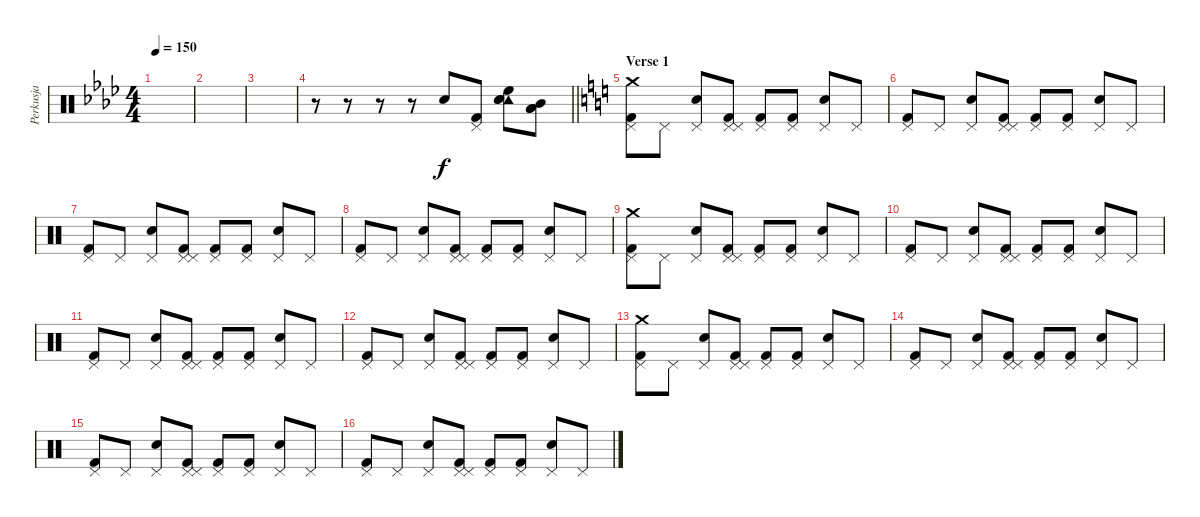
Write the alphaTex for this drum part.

\track ("Perkusja" "Perkusja") {instrument percussion}
\staff {score}
\articulation defaults
\ts (4 4)
\tempo 150
\clef neutral
\ks ab
|
|
|
\barLineRight lightlight
r.8 r.8 r.8 r.8 "Electric Snare (hit)".8 ("Pedal Hi-Hat (hit)" "Kick (hit) 2").8 ("Tambourine (hit)" "Electric Snare (hit)" "High Floor Tom (hit)" "Electric Snare (hit)").8 ("Mid Tom (hit)" "Low Floor Tom (hit)" "Low Floor Tom (hit)").8 |
\section ("" "Verse 1")
\ks c
("Pedal Hi-Hat (hit)" "Kick (hit) 2" "Crash medium (hit)").8 "Pedal Hi-Hat (hit)".8 ("Pedal Hi-Hat (hit)" "Electric Snare (hit)").8 ("Pedal Hi-Hat (hit)" "Kick (hit) 2" "Pedal Hi-Hat (hit)").8 ("Pedal Hi-Hat (hit)" "Kick (hit) 2").8 ("Pedal Hi-Hat (hit)" "Kick (hit) 2").8 ("Pedal Hi-Hat (hit)" "Electric Snare (hit)").8 "Pedal Hi-Hat (hit)".8 |
("Pedal Hi-Hat (hit)" "Kick (hit) 2").8 "Pedal Hi-Hat (hit)".8 ("Pedal Hi-Hat (hit)" "Electric Snare (hit)").8 ("Pedal Hi-Hat (hit)" "Kick (hit) 2" "Pedal Hi-Hat (hit)").8 ("Pedal Hi-Hat (hit)" "Kick (hit) 2").8 ("Pedal Hi-Hat (hit)" "Kick (hit) 2").8 ("Pedal Hi-Hat (hit)" "Electric Snare (hit)").8 "Pedal Hi-Hat (hit)".8 |
("Pedal Hi-Hat (hit)" "Kick (hit) 2").8 "Pedal Hi-Hat (hit)".8 ("Pedal Hi-Hat (hit)" "Electric Snare (hit)").8 ("Pedal Hi-Hat (hit)" "Kick (hit) 2" "Pedal Hi-Hat (hit)").8 ("Pedal Hi-Hat (hit)" "Kick (hit) 2").8 ("Pedal Hi-Hat (hit)" "Kick (hit) 2").8 ("Pedal Hi-Hat (hit)" "Electric Snare (hit)").8 "Pedal Hi-Hat (hit)".8 |
("Pedal Hi-Hat (hit)" "Kick (hit) 2").8 "Pedal Hi-Hat (hit)".8 ("Pedal Hi-Hat (hit)" "Electric Snare (hit)").8 ("Pedal Hi-Hat (hit)" "Kick (hit) 2" "Pedal Hi-Hat (hit)").8 ("Pedal Hi-Hat (hit)" "Kick (hit) 2").8 ("Pedal Hi-Hat (hit)" "Kick (hit) 2").8 ("Pedal Hi-Hat (hit)" "Electric Snare (hit)").8 "Pedal Hi-Hat (hit)".8 |
("Pedal Hi-Hat (hit)" "Kick (hit) 2" "Crash medium (hit)").8 "Pedal Hi-Hat (hit)".8 ("Pedal Hi-Hat (hit)" "Electric Snare (hit)").8 ("Pedal Hi-Hat (hit)" "Kick (hit) 2" "Pedal Hi-Hat (hit)").8 ("Pedal Hi-Hat (hit)" "Kick (hit) 2").8 ("Pedal Hi-Hat (hit)" "Kick (hit) 2").8 ("Pedal Hi-Hat (hit)" "Electric Snare (hit)").8 "Pedal Hi-Hat (hit)".8 |
("Pedal Hi-Hat (hit)" "Kick (hit) 2").8 "Pedal Hi-Hat (hit)".8 ("Pedal Hi-Hat (hit)" "Electric Snare (hit)").8 ("Pedal Hi-Hat (hit)" "Kick (hit) 2" "Pedal Hi-Hat (hit)").8 ("Pedal Hi-Hat (hit)" "Kick (hit) 2").8 ("Pedal Hi-Hat (hit)" "Kick (hit) 2").8 ("Pedal Hi-Hat (hit)" "Electric Snare (hit)").8 "Pedal Hi-Hat (hit)".8 |
("Pedal Hi-Hat (hit)" "Kick (hit) 2").8 "Pedal Hi-Hat (hit)".8 ("Pedal Hi-Hat (hit)" "Electric Snare (hit)").8 ("Pedal Hi-Hat (hit)" "Kick (hit) 2" "Pedal Hi-Hat (hit)").8 ("Pedal Hi-Hat (hit)" "Kick (hit) 2").8 ("Pedal Hi-Hat (hit)" "Kick (hit) 2").8 ("Pedal Hi-Hat (hit)" "Electric Snare (hit)").8 "Pedal Hi-Hat (hit)".8 |
("Pedal Hi-Hat (hit)" "Kick (hit) 2").8 "Pedal Hi-Hat (hit)".8 ("Pedal Hi-Hat (hit)" "Electric Snare (hit)").8 ("Pedal Hi-Hat (hit)" "Kick (hit) 2" "Pedal Hi-Hat (hit)").8 ("Pedal Hi-Hat (hit)" "Kick (hit) 2").8 ("Pedal Hi-Hat (hit)" "Kick (hit) 2").8 ("Pedal Hi-Hat (hit)" "Electric Snare (hit)").8 "Pedal Hi-Hat (hit)".8 |
("Pedal Hi-Hat (hit)" "Kick (hit) 2" "Crash medium (hit)").8 "Pedal Hi-Hat (hit)".8 ("Pedal Hi-Hat (hit)" "Electric Snare (hit)").8 ("Pedal Hi-Hat (hit)" "Kick (hit) 2" "Pedal Hi-Hat (hit)").8 ("Pedal Hi-Hat (hit)" "Kick (hit) 2").8 ("Pedal Hi-Hat (hit)" "Kick (hit) 2").8 ("Pedal Hi-Hat (hit)" "Electric Snare (hit)").8 "Pedal Hi-Hat (hit)".8 |
("Pedal Hi-Hat (hit)" "Kick (hit) 2").8 "Pedal Hi-Hat (hit)".8 ("Pedal Hi-Hat (hit)" "Electric Snare (hit)").8 ("Pedal Hi-Hat (hit)" "Kick (hit) 2" "Pedal Hi-Hat (hit)").8 ("Pedal Hi-Hat (hit)" "Kick (hit) 2").8 ("Pedal Hi-Hat (hit)" "Kick (hit) 2").8 ("Pedal Hi-Hat (hit)" "Electric Snare (hit)").8 "Pedal Hi-Hat (hit)".8 |
("Pedal Hi-Hat (hit)" "Kick (hit) 2").8 "Pedal Hi-Hat (hit)".8 ("Pedal Hi-Hat (hit)" "Electric Snare (hit)").8 ("Pedal Hi-Hat (hit)" "Kick (hit) 2" "Pedal Hi-Hat (hit)").8 ("Pedal Hi-Hat (hit)" "Kick (hit) 2").8 ("Pedal Hi-Hat (hit)" "Kick (hit) 2").8 ("Pedal Hi-Hat (hit)" "Electric Snare (hit)").8 "Pedal Hi-Hat (hit)".8 |
("Pedal Hi-Hat (hit)" "Kick (hit) 2").8 "Pedal Hi-Hat (hit)".8 ("Pedal Hi-Hat (hit)" "Electric Snare (hit)").8 ("Pedal Hi-Hat (hit)" "Kick (hit) 2" "Pedal Hi-Hat (hit)").8 ("Pedal Hi-Hat (hit)" "Kick (hit) 2").8 ("Pedal Hi-Hat (hit)" "Kick (hit) 2").8 ("Pedal Hi-Hat (hit)" "Electric Snare (hit)").8 "Pedal Hi-Hat (hit)".8
